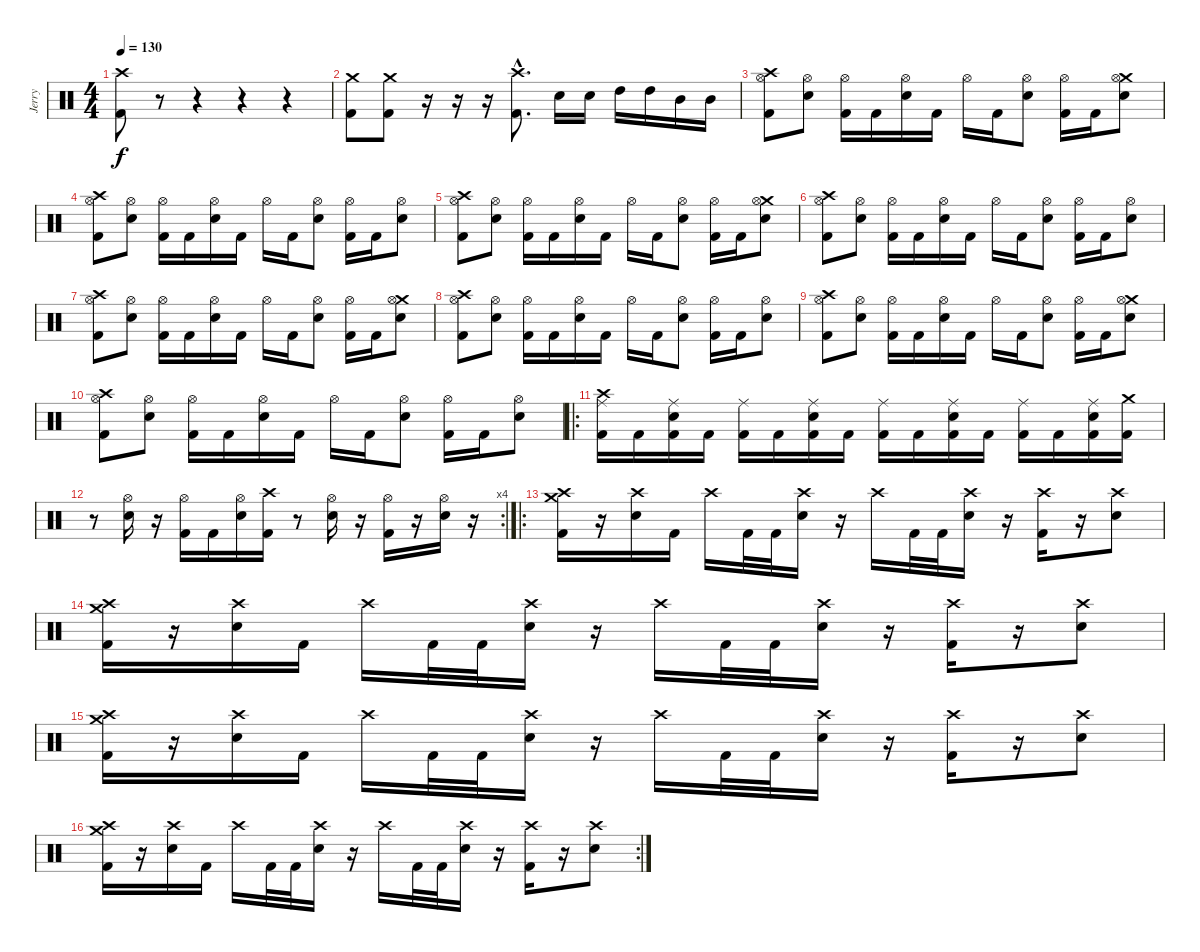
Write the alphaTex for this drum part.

\track ("Jerry" "Jerry") {instrument percussion}
\staff {score}
\articulation defaults
\ts (4 4)
\tempo 130
\clef neutral
\ks c
("Crash high (hit)" "Kick (hit) 2").8{dy f} r.8 r.4 r.4 r.4 |
("Crash medium (hit)" "Kick (hit) 2").8 ("Crash medium (hit)" "Kick (hit) 2").8 r.16 r.16 r.16 ("Crash high (hit)"{hac} "Kick (hit) 2"{hac}).8{d} "Electric Snare (hit)".16 "Electric Snare (hit)".16 "High Tom (hit)".16 "High Tom (hit)".16 "Mid Tom (hit)".16 "Mid Tom (hit)".16 |
("Crash high (hit)" "Hi-Hat (open)" "Kick (hit) 2").8 ("Hi-Hat (open)" "Electric Snare (hit)").8 ("Hi-Hat (open)" "Kick (hit) 2").16 "Kick (hit) 2".16 ("Hi-Hat (open)" "Electric Snare (hit)").16 "Kick (hit) 2".16 "Hi-Hat (open)".16 "Kick (hit) 2".16 ("Hi-Hat (open)" "Electric Snare (hit)").8 ("Hi-Hat (open)" "Kick (hit) 2").16 "Kick (hit) 2".16 ("Crash medium (hit)" "Hi-Hat (open)" "Electric Snare (hit)").8 |
("Crash high (hit)" "Hi-Hat (open)" "Kick (hit) 2").8 ("Hi-Hat (open)" "Electric Snare (hit)").8 ("Hi-Hat (open)" "Kick (hit) 2").16 "Kick (hit) 2".16 ("Hi-Hat (open)" "Electric Snare (hit)").16 "Kick (hit) 2".16 "Hi-Hat (open)".16 "Kick (hit) 2".16 ("Hi-Hat (open)" "Electric Snare (hit)").8 ("Hi-Hat (open)" "Kick (hit) 2").16 "Kick (hit) 2".16 ("Hi-Hat (open)" "Electric Snare (hit)").8 |
("Crash high (hit)" "Hi-Hat (open)" "Kick (hit) 2").8 ("Hi-Hat (open)" "Electric Snare (hit)").8 ("Hi-Hat (open)" "Kick (hit) 2").16 "Kick (hit) 2".16 ("Hi-Hat (open)" "Electric Snare (hit)").16 "Kick (hit) 2".16 "Hi-Hat (open)".16 "Kick (hit) 2".16 ("Hi-Hat (open)" "Electric Snare (hit)").8 ("Hi-Hat (open)" "Kick (hit) 2").16 "Kick (hit) 2".16 ("Crash medium (hit)" "Hi-Hat (open)" "Electric Snare (hit)").8 |
("Crash high (hit)" "Hi-Hat (open)" "Kick (hit) 2").8 ("Hi-Hat (open)" "Electric Snare (hit)").8 ("Hi-Hat (open)" "Kick (hit) 2").16 "Kick (hit) 2".16 ("Hi-Hat (open)" "Electric Snare (hit)").16 "Kick (hit) 2".16 "Hi-Hat (open)".16 "Kick (hit) 2".16 ("Hi-Hat (open)" "Electric Snare (hit)").8 ("Hi-Hat (open)" "Kick (hit) 2").16 "Kick (hit) 2".16 ("Hi-Hat (open)" "Electric Snare (hit)").8 |
("Crash high (hit)" "Hi-Hat (open)" "Kick (hit) 2").8 ("Hi-Hat (open)" "Electric Snare (hit)").8 ("Hi-Hat (open)" "Kick (hit) 2").16 "Kick (hit) 2".16 ("Hi-Hat (open)" "Electric Snare (hit)").16 "Kick (hit) 2".16 "Hi-Hat (open)".16 "Kick (hit) 2".16 ("Hi-Hat (open)" "Electric Snare (hit)").8 ("Hi-Hat (open)" "Kick (hit) 2").16 "Kick (hit) 2".16 ("Crash medium (hit)" "Hi-Hat (open)" "Electric Snare (hit)").8 |
("Crash high (hit)" "Hi-Hat (open)" "Kick (hit) 2").8 ("Hi-Hat (open)" "Electric Snare (hit)").8 ("Hi-Hat (open)" "Kick (hit) 2").16 "Kick (hit) 2".16 ("Hi-Hat (open)" "Electric Snare (hit)").16 "Kick (hit) 2".16 "Hi-Hat (open)".16 "Kick (hit) 2".16 ("Hi-Hat (open)" "Electric Snare (hit)").8 ("Hi-Hat (open)" "Kick (hit) 2").16 "Kick (hit) 2".16 ("Hi-Hat (open)" "Electric Snare (hit)").8 |
("Crash high (hit)" "Hi-Hat (open)" "Kick (hit) 2").8 ("Hi-Hat (open)" "Electric Snare (hit)").8 ("Hi-Hat (open)" "Kick (hit) 2").16 "Kick (hit) 2".16 ("Hi-Hat (open)" "Electric Snare (hit)").16 "Kick (hit) 2".16 "Hi-Hat (open)".16 "Kick (hit) 2".16 ("Hi-Hat (open)" "Electric Snare (hit)").8 ("Hi-Hat (open)" "Kick (hit) 2").16 "Kick (hit) 2".16 ("Crash medium (hit)" "Hi-Hat (open)" "Electric Snare (hit)").8 |
("Crash high (hit)" "Hi-Hat (open)" "Kick (hit) 2").8 ("Hi-Hat (open)" "Electric Snare (hit)").8 ("Hi-Hat (open)" "Kick (hit) 2").16 "Kick (hit) 2".16 ("Hi-Hat (open)" "Electric Snare (hit)").16 "Kick (hit) 2".16 "Hi-Hat (open)".16 "Kick (hit) 2".16 ("Hi-Hat (open)" "Electric Snare (hit)").8 ("Hi-Hat (open)" "Kick (hit) 2").16 "Kick (hit) 2".16 ("Hi-Hat (open)" "Electric Snare (hit)").8 |
\ro
("Crash high (hit)" "Ride (middle)" "Kick (hit) 2").16 "Kick (hit) 2".16 ("Ride (middle)" "Electric Snare (hit)" "Kick (hit) 2").16 "Kick (hit) 2".16 ("Ride (middle)" "Kick (hit) 2").16 "Kick (hit) 2".16 ("Ride (middle)" "Electric Snare (hit)" "Kick (hit) 2").16 "Kick (hit) 2".16 ("Ride (middle)" "Kick (hit) 2").16 "Kick (hit) 2".16 ("Ride (middle)" "Electric Snare (hit)" "Kick (hit) 2").16 "Kick (hit) 2".16 ("Ride (middle)" "Kick (hit) 2").16 "Kick (hit) 2".16 ("Ride (middle)" "Electric Snare (hit)" "Kick (hit) 2").16 ("Crash medium (hit)" "Kick (hit) 2").16 |
\rc 4
r.8 ("Hi-Hat (open)" "Electric Snare (hit)").16 r.16 ("Hi-Hat (open)" "Kick (hit) 2").16 "Kick (hit) 2".16 ("Hi-Hat (open)" "Electric Snare (hit)").16 ("Crash high (hit)" "Kick (hit) 2").16 r.8 ("Hi-Hat (open)" "Electric Snare (hit)").16 r.16 ("Hi-Hat (open)" "Kick (hit) 2").16 r.16 ("Hi-Hat (open)" "Electric Snare (hit)").16 r.16 |
\ro
("Crash medium (hit)" "Crash high (hit)" "Kick (hit) 2").16 r.16 ("Crash high (hit)" "Electric Snare (hit)").16 "Kick (hit) 2".16 "Crash high (hit)".16 "Kick (hit) 2".32 "Kick (hit) 2".32 ("Crash high (hit)" "Electric Snare (hit)").16 r.16 "Crash high (hit)".16 "Kick (hit) 2".32 "Kick (hit) 2".32 ("Crash high (hit)" "Electric Snare (hit)").16 r.16 ("Crash high (hit)" "Kick (hit) 2").16 r.16 ("Crash high (hit)" "Electric Snare (hit)").8 |
("Crash medium (hit)" "Crash high (hit)" "Kick (hit) 2").16 r.16 ("Crash high (hit)" "Electric Snare (hit)").16 "Kick (hit) 2".16 "Crash high (hit)".16 "Kick (hit) 2".32 "Kick (hit) 2".32 ("Crash high (hit)" "Electric Snare (hit)").16 r.16 "Crash high (hit)".16 "Kick (hit) 2".32 "Kick (hit) 2".32 ("Crash high (hit)" "Electric Snare (hit)").16 r.16 ("Crash high (hit)" "Kick (hit) 2").16 r.16 ("Crash high (hit)" "Electric Snare (hit)").8 |
("Crash medium (hit)" "Crash high (hit)" "Kick (hit) 2").16 r.16 ("Crash high (hit)" "Electric Snare (hit)").16 "Kick (hit) 2".16 "Crash high (hit)".16 "Kick (hit) 2".32 "Kick (hit) 2".32 ("Crash high (hit)" "Electric Snare (hit)").16 r.16 "Crash high (hit)".16 "Kick (hit) 2".32 "Kick (hit) 2".32 ("Crash high (hit)" "Electric Snare (hit)").16 r.16 ("Crash high (hit)" "Kick (hit) 2").16 r.16 ("Crash high (hit)" "Electric Snare (hit)").8 |
\rc 2
("Crash medium (hit)" "Crash high (hit)" "Kick (hit) 2").16 r.16 ("Crash high (hit)" "Electric Snare (hit)").16 "Kick (hit) 2".16 "Crash high (hit)".16 "Kick (hit) 2".32 "Kick (hit) 2".32 ("Crash high (hit)" "Electric Snare (hit)").16 r.16 "Crash high (hit)".16 "Kick (hit) 2".32 "Kick (hit) 2".32 ("Crash high (hit)" "Electric Snare (hit)").16 r.16 ("Crash high (hit)" "Kick (hit) 2").16 r.16 ("Crash high (hit)" "Electric Snare (hit)").8
